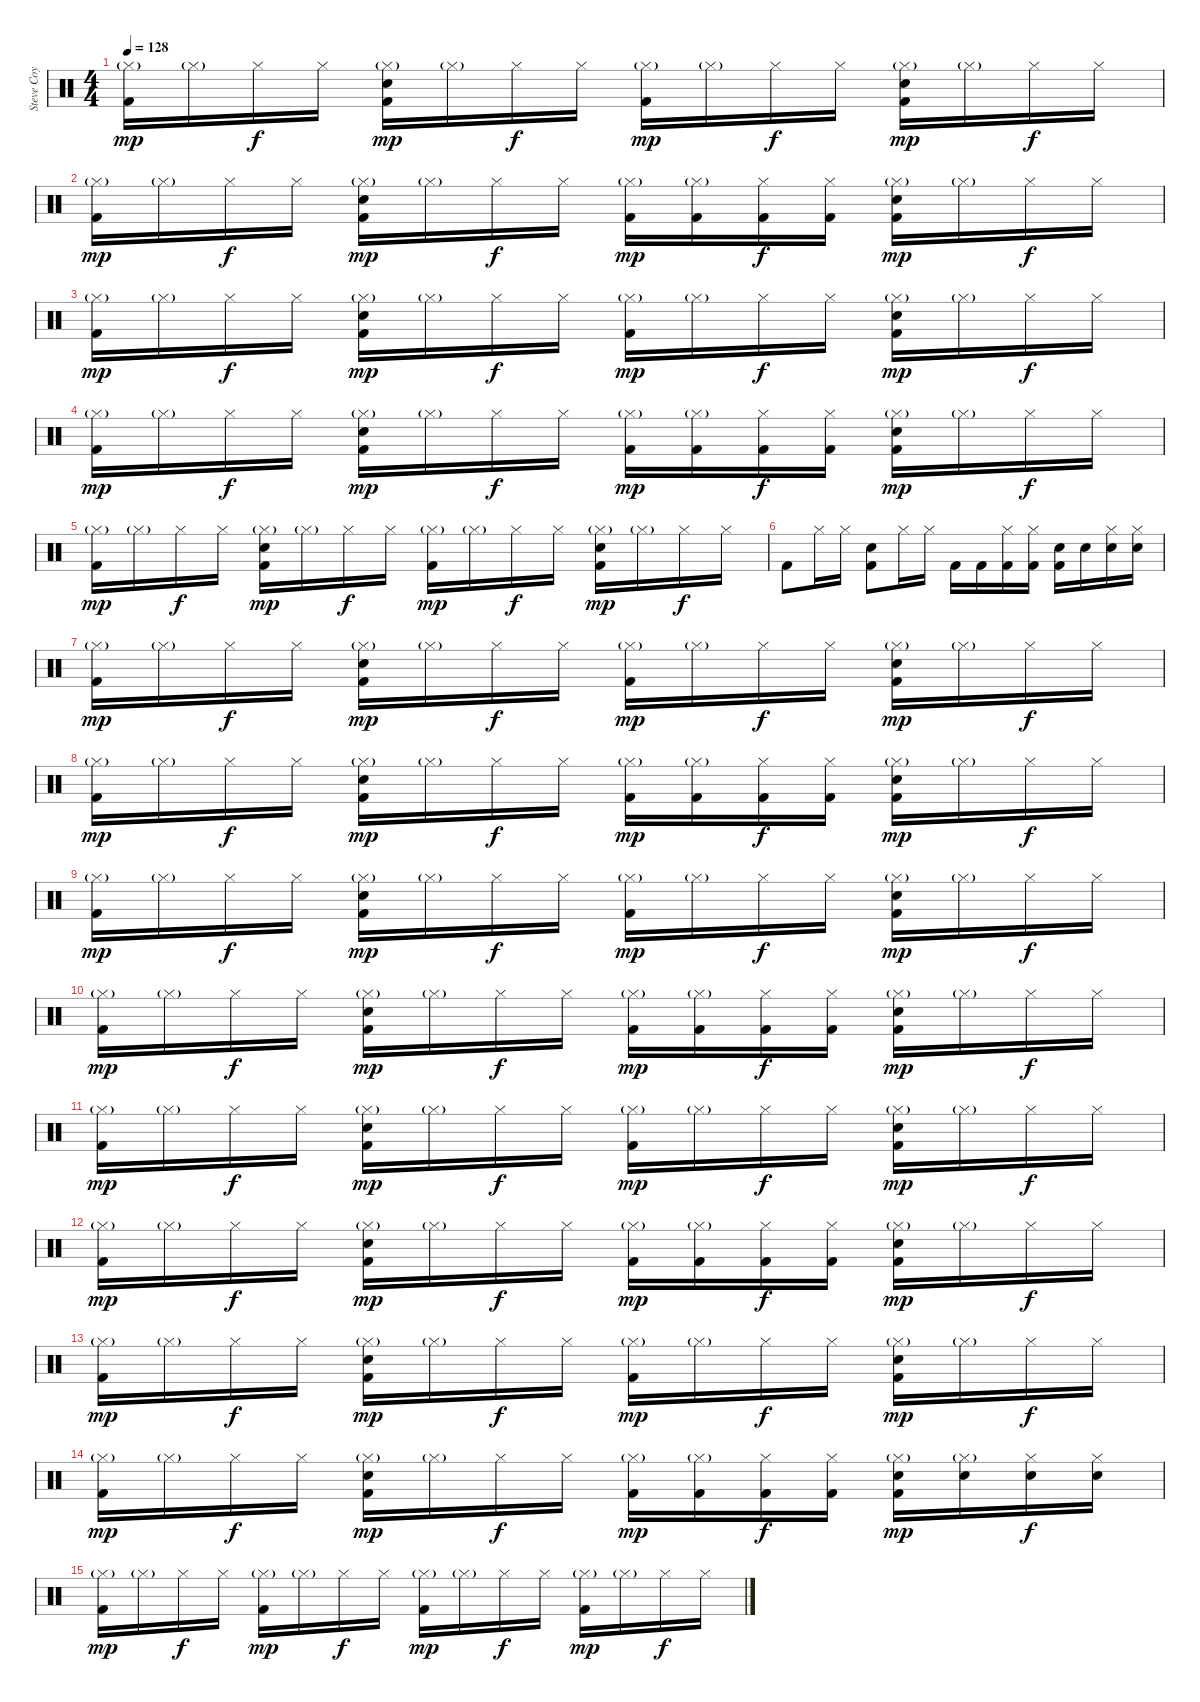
\track ("Steve Coy" "Steve Coy") {instrument percussion}
\staff {score}
\articulation defaults
\ts (4 4)
\tempo 128
\clef neutral
\ks c
("Hi-Hat (closed)"{g} "Kick (hit) 2").16{dy mp} "Hi-Hat (closed)"{g}.16 "Hi-Hat (closed)".16{dy f} "Hi-Hat (closed)".16 ("Hi-Hat (closed)"{g} "Snare (hit) 2" "Kick (hit) 2").16{dy mp} "Hi-Hat (closed)"{g}.16 "Hi-Hat (closed)".16{dy f} "Hi-Hat (closed)".16 ("Hi-Hat (closed)"{g} "Kick (hit) 2").16{dy mp} "Hi-Hat (closed)"{g}.16 "Hi-Hat (closed)".16{dy f} "Hi-Hat (closed)".16 ("Hi-Hat (closed)"{g} "Snare (hit) 2" "Kick (hit) 2").16{dy mp} "Hi-Hat (closed)"{g}.16 "Hi-Hat (closed)".16{dy f} "Hi-Hat (closed)".16 |
("Hi-Hat (closed)"{g} "Kick (hit) 2").16{dy mp} "Hi-Hat (closed)"{g}.16 "Hi-Hat (closed)".16{dy f} "Hi-Hat (closed)".16 ("Hi-Hat (closed)"{g} "Snare (hit) 2" "Kick (hit) 2").16{dy mp} "Hi-Hat (closed)"{g}.16 "Hi-Hat (closed)".16{dy f} "Hi-Hat (closed)".16 ("Hi-Hat (closed)"{g} "Kick (hit) 2").16{dy mp} ("Hi-Hat (closed)"{g} "Kick (hit) 2").16 ("Hi-Hat (closed)" "Kick (hit) 2").16{dy f} ("Hi-Hat (closed)" "Kick (hit) 2").16 ("Hi-Hat (closed)"{g} "Snare (hit) 2" "Kick (hit) 2").16{dy mp} "Hi-Hat (closed)"{g}.16 "Hi-Hat (closed)".16{dy f} "Hi-Hat (closed)".16 |
("Hi-Hat (closed)"{g} "Kick (hit) 2").16{dy mp} "Hi-Hat (closed)"{g}.16 "Hi-Hat (closed)".16{dy f} "Hi-Hat (closed)".16 ("Hi-Hat (closed)"{g} "Snare (hit) 2" "Kick (hit) 2").16{dy mp} "Hi-Hat (closed)"{g}.16 "Hi-Hat (closed)".16{dy f} "Hi-Hat (closed)".16 ("Hi-Hat (closed)"{g} "Kick (hit) 2").16{dy mp} "Hi-Hat (closed)"{g}.16 "Hi-Hat (closed)".16{dy f} "Hi-Hat (closed)".16 ("Hi-Hat (closed)"{g} "Snare (hit) 2" "Kick (hit) 2").16{dy mp} "Hi-Hat (closed)"{g}.16 "Hi-Hat (closed)".16{dy f} "Hi-Hat (closed)".16 |
("Hi-Hat (closed)"{g} "Kick (hit) 2").16{dy mp} "Hi-Hat (closed)"{g}.16 "Hi-Hat (closed)".16{dy f} "Hi-Hat (closed)".16 ("Hi-Hat (closed)"{g} "Snare (hit) 2" "Kick (hit) 2").16{dy mp} "Hi-Hat (closed)"{g}.16 "Hi-Hat (closed)".16{dy f} "Hi-Hat (closed)".16 ("Hi-Hat (closed)"{g} "Kick (hit) 2").16{dy mp} ("Hi-Hat (closed)"{g} "Kick (hit) 2").16 ("Hi-Hat (closed)" "Kick (hit) 2").16{dy f} ("Hi-Hat (closed)" "Kick (hit) 2").16 ("Hi-Hat (closed)"{g} "Snare (hit) 2" "Kick (hit) 2").16{dy mp} "Hi-Hat (closed)"{g}.16 "Hi-Hat (closed)".16{dy f} "Hi-Hat (closed)".16 |
("Hi-Hat (closed)"{g} "Kick (hit) 2").16{dy mp} "Hi-Hat (closed)"{g}.16 "Hi-Hat (closed)".16{dy f} "Hi-Hat (closed)".16 ("Hi-Hat (closed)"{g} "Snare (hit) 2" "Kick (hit) 2").16{dy mp} "Hi-Hat (closed)"{g}.16 "Hi-Hat (closed)".16{dy f} "Hi-Hat (closed)".16 ("Hi-Hat (closed)"{g} "Kick (hit) 2").16{dy mp} "Hi-Hat (closed)"{g}.16 "Hi-Hat (closed)".16{dy f} "Hi-Hat (closed)".16 ("Hi-Hat (closed)"{g} "Snare (hit) 2" "Kick (hit) 2").16{dy mp} "Hi-Hat (closed)"{g}.16 "Hi-Hat (closed)".16{dy f} "Hi-Hat (closed)".16 |
"Kick (hit) 2".8 "Hi-Hat (closed)".16 "Hi-Hat (closed)".16 ("Snare (hit) 2" "Kick (hit) 2").8 "Hi-Hat (closed)".16 "Hi-Hat (closed)".16 "Kick (hit) 2".16 "Kick (hit) 2".16 ("Hi-Hat (closed)" "Kick (hit) 2").16 ("Hi-Hat (closed)" "Kick (hit) 2").16 ("Snare (hit) 2" "Kick (hit) 2").16 "Snare (hit) 2".16 ("Hi-Hat (closed)" "Snare (hit) 2").16 ("Hi-Hat (closed)" "Snare (hit) 2").16 |
("Hi-Hat (closed)"{g} "Kick (hit) 2").16{dy mp} "Hi-Hat (closed)"{g}.16 "Hi-Hat (closed)".16{dy f} "Hi-Hat (closed)".16 ("Hi-Hat (closed)"{g} "Snare (hit) 2" "Kick (hit) 2").16{dy mp} "Hi-Hat (closed)"{g}.16 "Hi-Hat (closed)".16{dy f} "Hi-Hat (closed)".16 ("Hi-Hat (closed)"{g} "Kick (hit) 2").16{dy mp} "Hi-Hat (closed)"{g}.16 "Hi-Hat (closed)".16{dy f} "Hi-Hat (closed)".16 ("Hi-Hat (closed)"{g} "Snare (hit) 2" "Kick (hit) 2").16{dy mp} "Hi-Hat (closed)"{g}.16 "Hi-Hat (closed)".16{dy f} "Hi-Hat (closed)".16 |
("Hi-Hat (closed)"{g} "Kick (hit) 2").16{dy mp} "Hi-Hat (closed)"{g}.16 "Hi-Hat (closed)".16{dy f} "Hi-Hat (closed)".16 ("Hi-Hat (closed)"{g} "Snare (hit) 2" "Kick (hit) 2").16{dy mp} "Hi-Hat (closed)"{g}.16 "Hi-Hat (closed)".16{dy f} "Hi-Hat (closed)".16 ("Hi-Hat (closed)"{g} "Kick (hit) 2").16{dy mp} ("Hi-Hat (closed)"{g} "Kick (hit) 2").16 ("Hi-Hat (closed)" "Kick (hit) 2").16{dy f} ("Hi-Hat (closed)" "Kick (hit) 2").16 ("Hi-Hat (closed)"{g} "Snare (hit) 2" "Kick (hit) 2").16{dy mp} "Hi-Hat (closed)"{g}.16 "Hi-Hat (closed)".16{dy f} "Hi-Hat (closed)".16 |
("Hi-Hat (closed)"{g} "Kick (hit) 2").16{dy mp} "Hi-Hat (closed)"{g}.16 "Hi-Hat (closed)".16{dy f} "Hi-Hat (closed)".16 ("Hi-Hat (closed)"{g} "Snare (hit) 2" "Kick (hit) 2").16{dy mp} "Hi-Hat (closed)"{g}.16 "Hi-Hat (closed)".16{dy f} "Hi-Hat (closed)".16 ("Hi-Hat (closed)"{g} "Kick (hit) 2").16{dy mp} "Hi-Hat (closed)"{g}.16 "Hi-Hat (closed)".16{dy f} "Hi-Hat (closed)".16 ("Hi-Hat (closed)"{g} "Snare (hit) 2" "Kick (hit) 2").16{dy mp} "Hi-Hat (closed)"{g}.16 "Hi-Hat (closed)".16{dy f} "Hi-Hat (closed)".16 |
("Hi-Hat (closed)"{g} "Kick (hit) 2").16{dy mp} "Hi-Hat (closed)"{g}.16 "Hi-Hat (closed)".16{dy f} "Hi-Hat (closed)".16 ("Hi-Hat (closed)"{g} "Snare (hit) 2" "Kick (hit) 2").16{dy mp} "Hi-Hat (closed)"{g}.16 "Hi-Hat (closed)".16{dy f} "Hi-Hat (closed)".16 ("Hi-Hat (closed)"{g} "Kick (hit) 2").16{dy mp} ("Hi-Hat (closed)"{g} "Kick (hit) 2").16 ("Hi-Hat (closed)" "Kick (hit) 2").16{dy f} ("Hi-Hat (closed)" "Kick (hit) 2").16 ("Hi-Hat (closed)"{g} "Snare (hit) 2" "Kick (hit) 2").16{dy mp} "Hi-Hat (closed)"{g}.16 "Hi-Hat (closed)".16{dy f} "Hi-Hat (closed)".16 |
("Hi-Hat (closed)"{g} "Kick (hit) 2").16{dy mp} "Hi-Hat (closed)"{g}.16 "Hi-Hat (closed)".16{dy f} "Hi-Hat (closed)".16 ("Hi-Hat (closed)"{g} "Snare (hit) 2" "Kick (hit) 2").16{dy mp} "Hi-Hat (closed)"{g}.16 "Hi-Hat (closed)".16{dy f} "Hi-Hat (closed)".16 ("Hi-Hat (closed)"{g} "Kick (hit) 2").16{dy mp} "Hi-Hat (closed)"{g}.16 "Hi-Hat (closed)".16{dy f} "Hi-Hat (closed)".16 ("Hi-Hat (closed)"{g} "Snare (hit) 2" "Kick (hit) 2").16{dy mp} "Hi-Hat (closed)"{g}.16 "Hi-Hat (closed)".16{dy f} "Hi-Hat (closed)".16 |
("Hi-Hat (closed)"{g} "Kick (hit) 2").16{dy mp} "Hi-Hat (closed)"{g}.16 "Hi-Hat (closed)".16{dy f} "Hi-Hat (closed)".16 ("Hi-Hat (closed)"{g} "Snare (hit) 2" "Kick (hit) 2").16{dy mp} "Hi-Hat (closed)"{g}.16 "Hi-Hat (closed)".16{dy f} "Hi-Hat (closed)".16 ("Hi-Hat (closed)"{g} "Kick (hit) 2").16{dy mp} ("Hi-Hat (closed)"{g} "Kick (hit) 2").16 ("Hi-Hat (closed)" "Kick (hit) 2").16{dy f} ("Hi-Hat (closed)" "Kick (hit) 2").16 ("Hi-Hat (closed)"{g} "Snare (hit) 2" "Kick (hit) 2").16{dy mp} "Hi-Hat (closed)"{g}.16 "Hi-Hat (closed)".16{dy f} "Hi-Hat (closed)".16 |
("Hi-Hat (closed)"{g} "Kick (hit) 2").16{dy mp} "Hi-Hat (closed)"{g}.16 "Hi-Hat (closed)".16{dy f} "Hi-Hat (closed)".16 ("Hi-Hat (closed)"{g} "Snare (hit) 2" "Kick (hit) 2").16{dy mp} "Hi-Hat (closed)"{g}.16 "Hi-Hat (closed)".16{dy f} "Hi-Hat (closed)".16 ("Hi-Hat (closed)"{g} "Kick (hit) 2").16{dy mp} "Hi-Hat (closed)"{g}.16 "Hi-Hat (closed)".16{dy f} "Hi-Hat (closed)".16 ("Hi-Hat (closed)"{g} "Snare (hit) 2" "Kick (hit) 2").16{dy mp} "Hi-Hat (closed)"{g}.16 "Hi-Hat (closed)".16{dy f} "Hi-Hat (closed)".16 |
("Hi-Hat (closed)"{g} "Kick (hit) 2").16{dy mp} "Hi-Hat (closed)"{g}.16 "Hi-Hat (closed)".16{dy f} "Hi-Hat (closed)".16 ("Hi-Hat (closed)"{g} "Snare (hit) 2" "Kick (hit) 2").16{dy mp} "Hi-Hat (closed)"{g}.16 "Hi-Hat (closed)".16{dy f} "Hi-Hat (closed)".16 ("Hi-Hat (closed)"{g} "Kick (hit) 2").16{dy mp} ("Hi-Hat (closed)"{g} "Kick (hit) 2").16 ("Hi-Hat (closed)" "Kick (hit) 2").16{dy f} ("Hi-Hat (closed)" "Kick (hit) 2").16 ("Hi-Hat (closed)"{g} "Snare (hit) 2" "Kick (hit) 2").16{dy mp} ("Hi-Hat (closed)"{g} "Snare (hit) 2").16 ("Hi-Hat (closed)" "Snare (hit) 2").16{dy f} ("Hi-Hat (closed)" "Snare (hit) 2").16 |
("Hi-Hat (closed)"{g} "Kick (hit) 2").16{dy mp} "Hi-Hat (closed)"{g}.16 "Hi-Hat (closed)".16{dy f} "Hi-Hat (closed)".16 ("Hi-Hat (closed)"{g} "Kick (hit) 2").16{dy mp} "Hi-Hat (closed)"{g}.16 "Hi-Hat (closed)".16{dy f} "Hi-Hat (closed)".16 ("Hi-Hat (closed)"{g} "Kick (hit) 2").16{dy mp} "Hi-Hat (closed)"{g}.16 "Hi-Hat (closed)".16{dy f} "Hi-Hat (closed)".16 ("Hi-Hat (closed)"{g} "Kick (hit) 2").16{dy mp} "Hi-Hat (closed)"{g}.16 "Hi-Hat (closed)".16{dy f} "Hi-Hat (closed)".16
